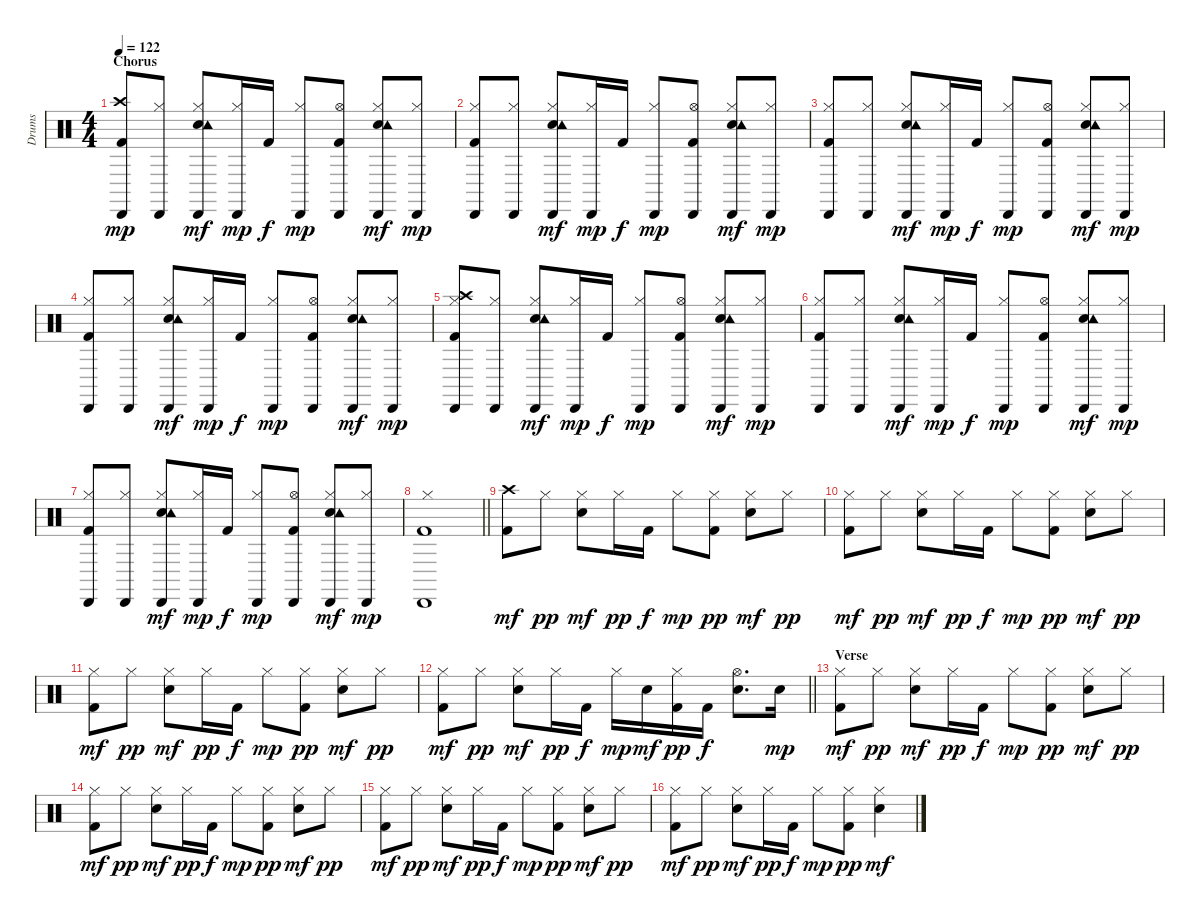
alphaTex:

\track ("Drums" "Drums") {instrument percussion}
\staff {score}
\articulation defaults
\ts (4 4)
\section ("" "Chorus")
\tempo 122
\clef neutral
\ks c
("Crash high (hit)" "Cabasa (hit)" "Kick (hit) 2").8{dy mp} ("Hi-Hat (closed)" "Cabasa (hit)").8 ("Hi-Hat (closed)" "Electric Snare (hit)" "Cabasa (hit)" "Tambourine (hit)").8{dy mf} ("Hi-Hat (closed)" "Cabasa (hit)").16{dy mp} "Kick (hit) 2".16{dy f} ("Hi-Hat (closed)" "Cabasa (hit)").8{dy mp} ("Hi-Hat (open)" "Cabasa (hit)" "Kick (hit) 2").8 ("Hi-Hat (closed)" "Electric Snare (hit)" "Cabasa (hit)" "Tambourine (hit)").8{dy mf} ("Hi-Hat (closed)" "Cabasa (hit)").8{dy mp} |
("Hi-Hat (closed)" "Cabasa (hit)" "Kick (hit) 2").8 ("Hi-Hat (closed)" "Cabasa (hit)").8 ("Hi-Hat (closed)" "Electric Snare (hit)" "Cabasa (hit)" "Tambourine (hit)").8{dy mf} ("Hi-Hat (closed)" "Cabasa (hit)").16{dy mp} "Kick (hit) 2".16{dy f} ("Hi-Hat (closed)" "Cabasa (hit)").8{dy mp} ("Hi-Hat (open)" "Cabasa (hit)" "Kick (hit) 2").8 ("Hi-Hat (closed)" "Electric Snare (hit)" "Cabasa (hit)" "Tambourine (hit)").8{dy mf} ("Hi-Hat (closed)" "Cabasa (hit)").8{dy mp} |
("Hi-Hat (closed)" "Cabasa (hit)" "Kick (hit) 2").8 ("Hi-Hat (closed)" "Cabasa (hit)").8 ("Hi-Hat (closed)" "Electric Snare (hit)" "Cabasa (hit)" "Tambourine (hit)").8{dy mf} ("Hi-Hat (closed)" "Cabasa (hit)").16{dy mp} "Kick (hit) 2".16{dy f} ("Hi-Hat (closed)" "Cabasa (hit)").8{dy mp} ("Hi-Hat (open)" "Cabasa (hit)" "Kick (hit) 2").8 ("Hi-Hat (closed)" "Electric Snare (hit)" "Cabasa (hit)" "Tambourine (hit)").8{dy mf} ("Hi-Hat (closed)" "Cabasa (hit)").8{dy mp} |
("Hi-Hat (closed)" "Cabasa (hit)" "Kick (hit) 2").8 ("Hi-Hat (closed)" "Cabasa (hit)").8 ("Hi-Hat (closed)" "Electric Snare (hit)" "Cabasa (hit)" "Tambourine (hit)").8{dy mf} ("Hi-Hat (closed)" "Cabasa (hit)").16{dy mp} "Kick (hit) 2".16{dy f} ("Hi-Hat (closed)" "Cabasa (hit)").8{dy mp} ("Hi-Hat (open)" "Cabasa (hit)" "Kick (hit) 2").8 ("Hi-Hat (closed)" "Electric Snare (hit)" "Cabasa (hit)" "Tambourine (hit)").8{dy mf} ("Hi-Hat (closed)" "Cabasa (hit)").8{dy mp} |
("Hi-Hat (closed)" "Crash high (hit)" "Cabasa (hit)" "Kick (hit) 2").8 ("Hi-Hat (closed)" "Cabasa (hit)").8 ("Hi-Hat (closed)" "Electric Snare (hit)" "Cabasa (hit)" "Tambourine (hit)").8{dy mf} ("Hi-Hat (closed)" "Cabasa (hit)").16{dy mp} "Kick (hit) 2".16{dy f} ("Hi-Hat (closed)" "Cabasa (hit)").8{dy mp} ("Hi-Hat (open)" "Cabasa (hit)" "Kick (hit) 2").8 ("Hi-Hat (closed)" "Electric Snare (hit)" "Cabasa (hit)" "Tambourine (hit)").8{dy mf} ("Hi-Hat (closed)" "Cabasa (hit)").8{dy mp} |
("Hi-Hat (closed)" "Cabasa (hit)" "Kick (hit) 2").8 ("Hi-Hat (closed)" "Cabasa (hit)").8 ("Hi-Hat (closed)" "Electric Snare (hit)" "Cabasa (hit)" "Tambourine (hit)").8{dy mf} ("Hi-Hat (closed)" "Cabasa (hit)").16{dy mp} "Kick (hit) 2".16{dy f} ("Hi-Hat (closed)" "Cabasa (hit)").8{dy mp} ("Hi-Hat (open)" "Cabasa (hit)" "Kick (hit) 2").8 ("Hi-Hat (closed)" "Electric Snare (hit)" "Cabasa (hit)" "Tambourine (hit)").8{dy mf} ("Hi-Hat (closed)" "Cabasa (hit)").8{dy mp} |
("Hi-Hat (closed)" "Cabasa (hit)" "Kick (hit) 2").8 ("Hi-Hat (closed)" "Cabasa (hit)").8 ("Hi-Hat (closed)" "Electric Snare (hit)" "Cabasa (hit)" "Tambourine (hit)").8{dy mf} ("Hi-Hat (closed)" "Cabasa (hit)").16{dy mp} "Kick (hit) 2".16{dy f} ("Hi-Hat (closed)" "Cabasa (hit)").8{dy mp} ("Hi-Hat (open)" "Cabasa (hit)" "Kick (hit) 2").8 ("Hi-Hat (closed)" "Electric Snare (hit)" "Cabasa (hit)" "Tambourine (hit)").8{dy mf} ("Hi-Hat (closed)" "Cabasa (hit)").8{dy mp} |
\barLineRight lightlight
("Hi-Hat (closed)" "Cabasa (hit)" "Kick (hit) 2").1 |
("Crash high (hit)" "Kick (hit) 2").8{dy mf} "Hi-Hat (closed)".8{dy pp} ("Hi-Hat (closed)" "Electric Snare (hit)").8{dy mf} "Hi-Hat (closed)".16{dy pp} "Kick (hit) 2".16{dy f} "Hi-Hat (closed)".8{dy mp} ("Hi-Hat (closed)" "Kick (hit) 2").8{dy pp} ("Hi-Hat (closed)" "Electric Snare (hit)").8{dy mf} "Hi-Hat (closed)".8{dy pp} |
("Hi-Hat (closed)" "Kick (hit) 2").8{dy mf} "Hi-Hat (closed)".8{dy pp} ("Hi-Hat (closed)" "Electric Snare (hit)").8{dy mf} "Hi-Hat (closed)".16{dy pp} "Kick (hit) 2".16{dy f} "Hi-Hat (closed)".8{dy mp} ("Hi-Hat (closed)" "Kick (hit) 2").8{dy pp} ("Hi-Hat (closed)" "Electric Snare (hit)").8{dy mf} "Hi-Hat (closed)".8{dy pp} |
("Hi-Hat (closed)" "Kick (hit) 2").8{dy mf} "Hi-Hat (closed)".8{dy pp} ("Hi-Hat (closed)" "Electric Snare (hit)").8{dy mf} "Hi-Hat (closed)".16{dy pp} "Kick (hit) 2".16{dy f} "Hi-Hat (closed)".8{dy mp} ("Hi-Hat (closed)" "Kick (hit) 2").8{dy pp} ("Hi-Hat (closed)" "Electric Snare (hit)").8{dy mf} "Hi-Hat (closed)".8{dy pp} |
\barLineRight lightlight
("Hi-Hat (closed)" "Kick (hit) 2").8{dy mf} "Hi-Hat (closed)".8{dy pp} ("Hi-Hat (closed)" "Electric Snare (hit)").8{dy mf} "Hi-Hat (closed)".16{dy pp} "Kick (hit) 2".16{dy f} "Hi-Hat (closed)".16{dy mp} "Electric Snare (hit)".16{dy mf} ("Hi-Hat (closed)" "Kick (hit) 2").16{dy pp} "Kick (hit) 2".16{dy f} ("Hi-Hat (open)" "Electric Snare (hit)").8{d} "Electric Snare (hit)".16{dy mp} |
\section ("" "Verse")
("Hi-Hat (closed)" "Kick (hit) 2").8{dy mf} "Hi-Hat (closed)".8{dy pp} ("Hi-Hat (closed)" "Electric Snare (hit)").8{dy mf} "Hi-Hat (closed)".16{dy pp} "Kick (hit) 2".16{dy f} "Hi-Hat (closed)".8{dy mp} ("Hi-Hat (closed)" "Kick (hit) 2").8{dy pp} ("Hi-Hat (closed)" "Electric Snare (hit)").8{dy mf} "Hi-Hat (closed)".8{dy pp} |
("Hi-Hat (closed)" "Kick (hit) 2").8{dy mf} "Hi-Hat (closed)".8{dy pp} ("Hi-Hat (closed)" "Electric Snare (hit)").8{dy mf} "Hi-Hat (closed)".16{dy pp} "Kick (hit) 2".16{dy f} "Hi-Hat (closed)".8{dy mp} ("Hi-Hat (closed)" "Kick (hit) 2").8{dy pp} ("Hi-Hat (closed)" "Electric Snare (hit)").8{dy mf} "Hi-Hat (closed)".8{dy pp} |
("Hi-Hat (closed)" "Kick (hit) 2").8{dy mf} "Hi-Hat (closed)".8{dy pp} ("Hi-Hat (closed)" "Electric Snare (hit)").8{dy mf} "Hi-Hat (closed)".16{dy pp} "Kick (hit) 2".16{dy f} "Hi-Hat (closed)".8{dy mp} ("Hi-Hat (closed)" "Kick (hit) 2").8{dy pp} ("Hi-Hat (closed)" "Electric Snare (hit)").8{dy mf} "Hi-Hat (closed)".8{dy pp} |
("Hi-Hat (closed)" "Kick (hit) 2").8{dy mf} "Hi-Hat (closed)".8{dy pp} ("Hi-Hat (closed)" "Electric Snare (hit)").8{dy mf} "Hi-Hat (closed)".16{dy pp} "Kick (hit) 2".16{dy f} "Hi-Hat (closed)".8{dy mp} ("Hi-Hat (closed)" "Kick (hit) 2").8{dy pp} ("Hi-Hat (closed)" "Electric Snare (hit)").4{dy mf}
